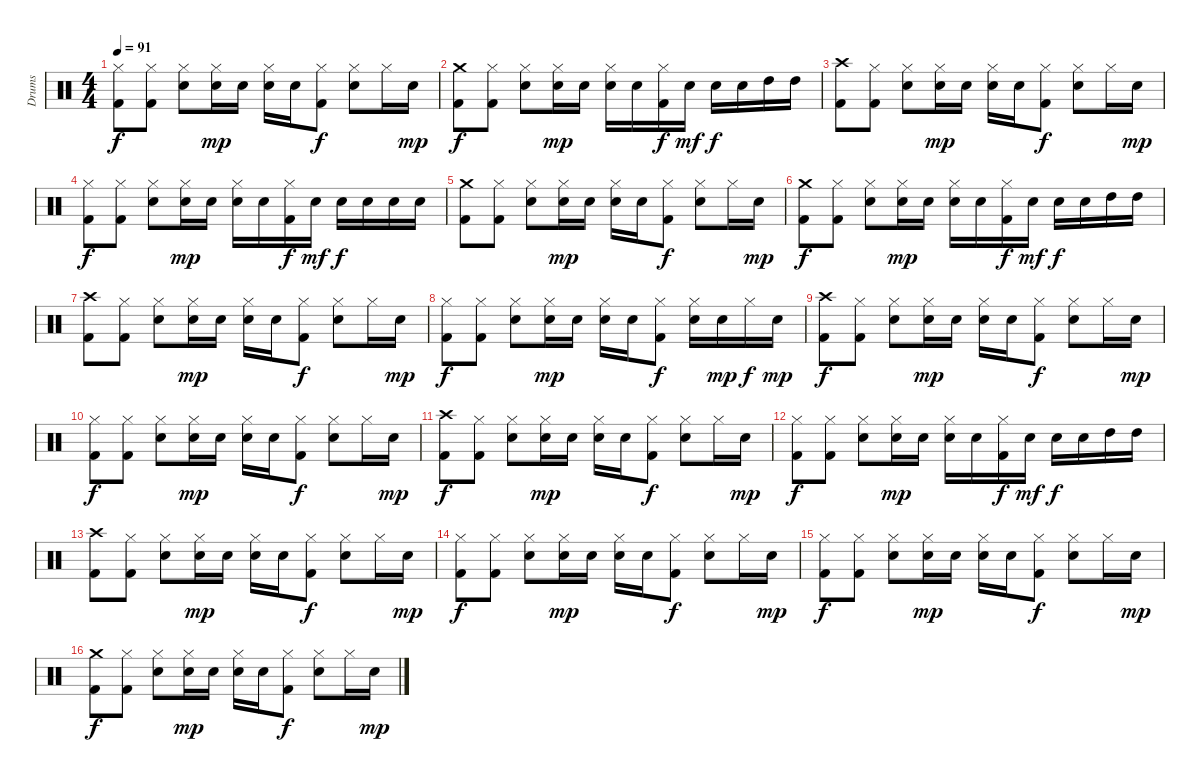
\track ("Drums" "Drums") {instrument percussion}
\staff {score}
\articulation defaults
\ts (4 4)
\tempo 91
\clef neutral
\ks c
("Kick (hit) 2" "Hi-Hat (closed)").8{dy f} ("Kick (hit) 2" "Hi-Hat (closed)").8 ("Snare (hit) 2" "Hi-Hat (closed)").8 ("Snare (hit) 2" "Hi-Hat (closed)").16{dy mp} "Snare (hit) 2".16 ("Snare (hit) 2" "Hi-Hat (closed)").16 "Snare (hit) 2".16 ("Kick (hit) 2" "Hi-Hat (closed)").8{dy f} ("Snare (hit) 2" "Hi-Hat (closed)").8 "Hi-Hat (closed)".16 "Snare (hit) 2".16{dy mp} |
("Crash medium (hit)" "Kick (hit) 2").8{dy f} ("Hi-Hat (closed)" "Kick (hit) 2").8 ("Hi-Hat (closed)" "Snare (hit) 2").8 ("Hi-Hat (closed)" "Snare (hit) 2").16{dy mp} "Snare (hit) 2".16 ("Hi-Hat (closed)" "Snare (hit) 2").16 "Snare (hit) 2".16 ("Hi-Hat (closed)" "Kick (hit) 2").16{dy f} "Snare (hit) 2".16{dy mf} "Snare (hit) 2".16{dy f} "Snare (hit) 2".16 "High Tom (hit)".16 "High Tom (hit)".16 |
("Kick (hit) 2" "Crash high (hit)").8{volume 16} ("Kick (hit) 2" "Hi-Hat (closed)").8 ("Snare (hit) 2" "Hi-Hat (closed)").8 ("Snare (hit) 2" "Hi-Hat (closed)").16{dy mp} "Snare (hit) 2".16 ("Snare (hit) 2" "Hi-Hat (closed)").16 "Snare (hit) 2".16 ("Kick (hit) 2" "Hi-Hat (closed)").8{dy f} ("Snare (hit) 2" "Hi-Hat (closed)").8 "Hi-Hat (closed)".16 "Snare (hit) 2".16{dy mp} |
("Kick (hit) 2" "Hi-Hat (closed)").8{dy f} ("Kick (hit) 2" "Hi-Hat (closed)").8 ("Snare (hit) 2" "Hi-Hat (closed)").8 ("Snare (hit) 2" "Hi-Hat (closed)").16{dy mp} "Snare (hit) 2".16 ("Snare (hit) 2" "Hi-Hat (closed)").16 "Snare (hit) 2".16 ("Kick (hit) 2" "Hi-Hat (closed)").16{dy f} "Snare (hit) 2".16{dy mf} "Snare (hit) 2".16{dy f} "Snare (hit) 2".16 "Snare (hit) 2".16 "Snare (hit) 2".16 |
("Kick (hit) 2" "Crash medium (hit)").8 ("Kick (hit) 2" "Hi-Hat (closed)").8 ("Snare (hit) 2" "Hi-Hat (closed)").8 ("Snare (hit) 2" "Hi-Hat (closed)").16{dy mp} "Snare (hit) 2".16 ("Snare (hit) 2" "Hi-Hat (closed)").16 "Snare (hit) 2".16 ("Kick (hit) 2" "Hi-Hat (closed)").8{dy f} ("Snare (hit) 2" "Hi-Hat (closed)").8 "Hi-Hat (closed)".16 "Snare (hit) 2".16{dy mp} |
("Crash medium (hit)" "Kick (hit) 2").8{dy f} ("Hi-Hat (closed)" "Kick (hit) 2").8 ("Hi-Hat (closed)" "Snare (hit) 2").8 ("Hi-Hat (closed)" "Snare (hit) 2").16{dy mp} "Snare (hit) 2".16 ("Hi-Hat (closed)" "Snare (hit) 2").16 "Snare (hit) 2".16 ("Hi-Hat (closed)" "Kick (hit) 2").16{dy f} "Snare (hit) 2".16{dy mf} "Snare (hit) 2".16{dy f} "Snare (hit) 2".16 "High Tom (hit)".16 "High Tom (hit)".16 |
("Kick (hit) 2" "Crash high (hit)").8 ("Kick (hit) 2" "Hi-Hat (closed)").8 ("Snare (hit) 2" "Hi-Hat (closed)").8 ("Snare (hit) 2" "Hi-Hat (closed)").16{dy mp} "Snare (hit) 2".16 ("Snare (hit) 2" "Hi-Hat (closed)").16 "Snare (hit) 2".16 ("Kick (hit) 2" "Hi-Hat (closed)").8{dy f} ("Snare (hit) 2" "Hi-Hat (closed)").8 "Hi-Hat (closed)".16 "Snare (hit) 2".16{dy mp} |
("Kick (hit) 2" "Hi-Hat (closed)").8{dy f} ("Kick (hit) 2" "Hi-Hat (closed)").8 ("Snare (hit) 2" "Hi-Hat (closed)").8 ("Snare (hit) 2" "Hi-Hat (closed)").16{dy mp} "Snare (hit) 2".16 ("Snare (hit) 2" "Hi-Hat (closed)").16 "Snare (hit) 2".16 ("Kick (hit) 2" "Hi-Hat (closed)").8{dy f} ("Snare (hit) 2" "Hi-Hat (closed)").16 "Snare (hit) 2".16{dy mp} "Hi-Hat (closed)".16{dy f} "Snare (hit) 2".16{dy mp} |
("Kick (hit) 2" "Crash high (hit)").8{dy f} ("Kick (hit) 2" "Hi-Hat (closed)").8 ("Snare (hit) 2" "Hi-Hat (closed)").8 ("Snare (hit) 2" "Hi-Hat (closed)").16{dy mp} "Snare (hit) 2".16 ("Snare (hit) 2" "Hi-Hat (closed)").16 "Snare (hit) 2".16 ("Kick (hit) 2" "Hi-Hat (closed)").8{dy f} ("Snare (hit) 2" "Hi-Hat (closed)").8 "Hi-Hat (closed)".16 "Snare (hit) 2".16{dy mp} |
("Hi-Hat (closed)" "Kick (hit) 2").8{dy f} ("Hi-Hat (closed)" "Kick (hit) 2").8 ("Hi-Hat (closed)" "Snare (hit) 2").8 ("Hi-Hat (closed)" "Snare (hit) 2").16{dy mp} "Snare (hit) 2".16 ("Hi-Hat (closed)" "Snare (hit) 2").16 "Snare (hit) 2".16 ("Hi-Hat (closed)" "Kick (hit) 2").8{dy f} ("Snare (hit) 2" "Hi-Hat (closed)").8 "Hi-Hat (closed)".16 "Snare (hit) 2".16{dy mp} |
("Kick (hit) 2" "Crash high (hit)").8{dy f} ("Kick (hit) 2" "Hi-Hat (closed)").8 ("Snare (hit) 2" "Hi-Hat (closed)").8 ("Snare (hit) 2" "Hi-Hat (closed)").16{dy mp} "Snare (hit) 2".16 ("Snare (hit) 2" "Hi-Hat (closed)").16 "Snare (hit) 2".16 ("Kick (hit) 2" "Hi-Hat (closed)").8{dy f} ("Snare (hit) 2" "Hi-Hat (closed)").8 "Hi-Hat (closed)".16 "Snare (hit) 2".16{dy mp} |
("Kick (hit) 2" "Hi-Hat (closed)").8{dy f} ("Kick (hit) 2" "Hi-Hat (closed)").8 ("Snare (hit) 2" "Hi-Hat (closed)").8 ("Snare (hit) 2" "Hi-Hat (closed)").16{dy mp} "Snare (hit) 2".16 ("Snare (hit) 2" "Hi-Hat (closed)").16 "Snare (hit) 2".16 ("Kick (hit) 2" "Hi-Hat (closed)").16{dy f} "Snare (hit) 2".16{dy mf} "Snare (hit) 2".16{dy f} "Snare (hit) 2".16 "High Tom (hit)".16 "High Tom (hit)".16 |
("Kick (hit) 2" "Crash high (hit)").8{volume 16 balance 8} ("Kick (hit) 2" "Hi-Hat (closed)").8 ("Snare (hit) 2" "Hi-Hat (closed)").8 ("Snare (hit) 2" "Hi-Hat (closed)").16{dy mp} "Snare (hit) 2".16 ("Snare (hit) 2" "Hi-Hat (closed)").16 "Snare (hit) 2".16 ("Kick (hit) 2" "Hi-Hat (closed)").8{dy f} ("Snare (hit) 2" "Hi-Hat (closed)").8 "Hi-Hat (closed)".16 "Snare (hit) 2".16{dy mp} |
("Kick (hit) 2" "Hi-Hat (closed)").8{dy f} ("Kick (hit) 2" "Hi-Hat (closed)").8 ("Snare (hit) 2" "Hi-Hat (closed)").8 ("Snare (hit) 2" "Hi-Hat (closed)").16{dy mp} "Snare (hit) 2".16 ("Snare (hit) 2" "Hi-Hat (closed)").16 "Snare (hit) 2".16 ("Kick (hit) 2" "Hi-Hat (closed)").8{dy f} ("Snare (hit) 2" "Hi-Hat (closed)").8 "Hi-Hat (closed)".16 "Snare (hit) 2".16{dy mp} |
("Kick (hit) 2" "Hi-Hat (closed)").8{dy f} ("Kick (hit) 2" "Hi-Hat (closed)").8 ("Snare (hit) 2" "Hi-Hat (closed)").8 ("Snare (hit) 2" "Hi-Hat (closed)").16{dy mp} "Snare (hit) 2".16 ("Snare (hit) 2" "Hi-Hat (closed)").16 "Snare (hit) 2".16 ("Kick (hit) 2" "Hi-Hat (closed)").8{dy f} ("Snare (hit) 2" "Hi-Hat (closed)").8 "Hi-Hat (closed)".16 "Snare (hit) 2".16{dy mp} |
("Kick (hit) 2" "Crash medium (hit)").8{dy f} ("Kick (hit) 2" "Hi-Hat (closed)").8 ("Snare (hit) 2" "Hi-Hat (closed)").8 ("Snare (hit) 2" "Hi-Hat (closed)").16{dy mp} "Snare (hit) 2".16 ("Snare (hit) 2" "Hi-Hat (closed)").16 "Snare (hit) 2".16 ("Kick (hit) 2" "Hi-Hat (closed)").8{dy f} ("Snare (hit) 2" "Hi-Hat (closed)").8 "Hi-Hat (closed)".16 "Snare (hit) 2".16{dy mp}
